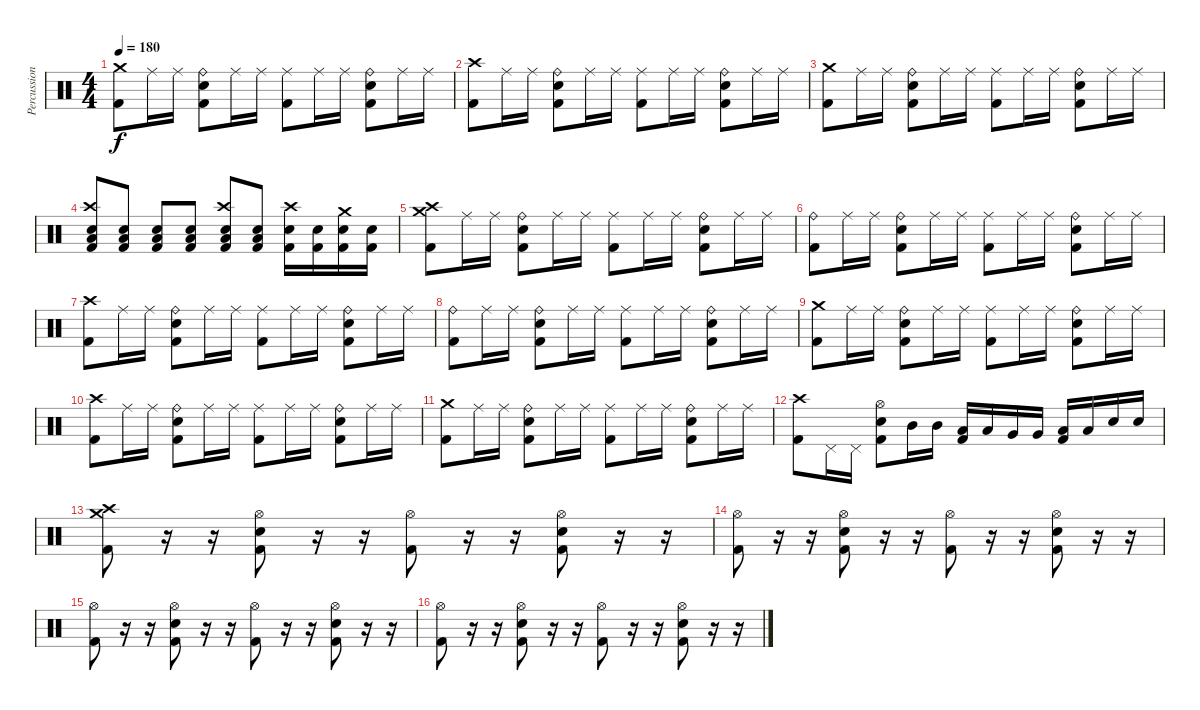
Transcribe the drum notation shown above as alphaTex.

\track ("Percussion" "Percussion") {instrument percussion}
\staff {score}
\articulation defaults
\ts (4 4)
\tempo 180
\clef neutral
\ks c
("Crash medium (hit)" "Kick (hit) 2").8{dy f} "Ride (middle)".16 "Ride (middle)".16 ("Ride (bell)" "Electric Snare (hit)" "Kick (hit) 2").8 "Ride (middle)".16 "Ride (middle)".16 ("Ride (middle)" "Kick (hit) 2").8 "Ride (middle)".16 "Ride (middle)".16 ("Ride (bell)" "Electric Snare (hit)" "Kick (hit) 2").8 "Ride (middle)".16 "Ride (middle)".16 |
("Crash high (hit)" "Kick (hit) 2").8 "Ride (middle)".16 "Ride (middle)".16 ("Ride (bell)" "Electric Snare (hit)" "Kick (hit) 2").8 "Ride (middle)".16 "Ride (middle)".16 ("Ride (middle)" "Kick (hit) 2").8 "Ride (middle)".16 "Ride (middle)".16 ("Ride (bell)" "Electric Snare (hit)" "Kick (hit) 2").8 "Ride (middle)".16 "Ride (middle)".16 |
("Crash medium (hit)" "Kick (hit) 2").8 "Ride (middle)".16 "Ride (middle)".16 ("Ride (bell)" "Electric Snare (hit)" "Kick (hit) 2").8 "Ride (middle)".16 "Ride (middle)".16 ("Ride (middle)" "Kick (hit) 2").8 "Ride (middle)".16 "Ride (middle)".16 ("Ride (bell)" "Electric Snare (hit)" "Kick (hit) 2").8 "Ride (middle)".16 "Ride (middle)".16 |
("Crash high (hit)" "Electric Snare (hit)" "Low Floor Tom (hit)" "Kick (hit) 2").8 ("Electric Snare (hit)" "Low Floor Tom (hit)" "Kick (hit) 2").8 ("Electric Snare (hit)" "Low Floor Tom (hit)" "Kick (hit) 2").8 ("Electric Snare (hit)" "Low Floor Tom (hit)" "Kick (hit) 2").8 ("Crash high (hit)" "Electric Snare (hit)" "Low Floor Tom (hit)" "Kick (hit) 2").8 ("Electric Snare (hit)" "Low Floor Tom (hit)" "Kick (hit) 2").8 ("Crash high (hit)" "Electric Snare (hit)" "Kick (hit) 2").16 ("Electric Snare (hit)" "Kick (hit) 2").16 ("Crash medium (hit)" "Electric Snare (hit)" "Kick (hit) 2").16 ("Electric Snare (hit)" "Kick (hit) 2").16 |
("Crash high (hit)" "Crash medium (hit)" "Kick (hit) 2").8 "Ride (middle)".16 "Ride (middle)".16 ("Ride (bell)" "Electric Snare (hit)" "Kick (hit) 2").8 "Ride (middle)".16 "Ride (middle)".16 ("Ride (middle)" "Kick (hit) 2").8 "Ride (middle)".16 "Ride (middle)".16 ("Ride (bell)" "Electric Snare (hit)" "Kick (hit) 2").8 "Ride (middle)".16 "Ride (middle)".16 |
("Ride (bell)" "Kick (hit) 2").8 "Ride (middle)".16 "Ride (middle)".16 ("Ride (bell)" "Electric Snare (hit)" "Kick (hit) 2").8 "Ride (middle)".16 "Ride (middle)".16 ("Ride (middle)" "Kick (hit) 2").8 "Ride (middle)".16 "Ride (middle)".16 ("Ride (bell)" "Electric Snare (hit)" "Kick (hit) 2").8 "Ride (middle)".16 "Ride (middle)".16 |
("Crash high (hit)" "Kick (hit) 2").8 "Ride (middle)".16 "Ride (middle)".16 ("Ride (bell)" "Electric Snare (hit)" "Kick (hit) 2").8 "Ride (middle)".16 "Ride (middle)".16 ("Ride (middle)" "Kick (hit) 2").8 "Ride (middle)".16 "Ride (middle)".16 ("Ride (bell)" "Electric Snare (hit)" "Kick (hit) 2").8 "Ride (middle)".16 "Ride (middle)".16 |
("Ride (bell)" "Kick (hit) 2").8 "Ride (middle)".16 "Ride (middle)".16 ("Ride (bell)" "Electric Snare (hit)" "Kick (hit) 2").8 "Ride (middle)".16 "Ride (middle)".16 ("Ride (middle)" "Kick (hit) 2").8 "Ride (middle)".16 "Ride (middle)".16 ("Ride (bell)" "Electric Snare (hit)" "Kick (hit) 2").8 "Ride (middle)".16 "Ride (middle)".16 |
("Crash medium (hit)" "Kick (hit) 2").8 "Ride (middle)".16 "Ride (middle)".16 ("Ride (bell)" "Electric Snare (hit)" "Kick (hit) 2").8 "Ride (middle)".16 "Ride (middle)".16 ("Ride (middle)" "Kick (hit) 2").8 "Ride (middle)".16 "Ride (middle)".16 ("Ride (bell)" "Electric Snare (hit)" "Kick (hit) 2").8 "Ride (middle)".16 "Ride (middle)".16 |
("Crash high (hit)" "Kick (hit) 2").8 "Ride (middle)".16 "Ride (middle)".16 ("Ride (bell)" "Electric Snare (hit)" "Kick (hit) 2").8 "Ride (middle)".16 "Ride (middle)".16 ("Ride (middle)" "Kick (hit) 2").8 "Ride (middle)".16 "Ride (middle)".16 ("Ride (bell)" "Electric Snare (hit)" "Kick (hit) 2").8 "Ride (middle)".16 "Ride (middle)".16 |
("Crash medium (hit)" "Kick (hit) 2").8 "Ride (middle)".16 "Ride (middle)".16 ("Ride (bell)" "Electric Snare (hit)" "Kick (hit) 2").8 "Ride (middle)".16 "Ride (middle)".16 ("Ride (middle)" "Kick (hit) 2").8 "Ride (middle)".16 "Ride (middle)".16 ("Ride (bell)" "Electric Snare (hit)" "Kick (hit) 2").8 "Ride (middle)".16 "Ride (middle)".16 |
("Crash high (hit)" "Kick (hit) 2").8 "Pedal Hi-Hat (hit)".16 "Pedal Hi-Hat (hit)".16 ("Hi-Hat (open)" "Electric Snare (hit)" "Kick (hit) 2").8 "Mid Tom (hit)".16 "Mid Tom (hit)".16 ("Low Tom (hit)" "Kick (hit) 2").16 "Low Tom (hit)".16 "Very Low Tom (hit)".16 "Very Low Tom (hit)".16 ("Low Floor Tom (hit)" "Kick (hit) 2").16 "Low Floor Tom (hit)".16 "Electric Snare (hit)".16 "Electric Snare (hit)".16 |
("Crash high (hit)" "Crash medium (hit)" "Kick (hit) 2").8 r.16 r.16 ("Hi-Hat (open)" "Electric Snare (hit)" "Kick (hit) 2").8 r.16 r.16 ("Hi-Hat (open)" "Kick (hit) 2").8 r.16 r.16 ("Hi-Hat (open)" "Electric Snare (hit)" "Kick (hit) 2").8 r.16 r.16 |
("Hi-Hat (open)" "Kick (hit) 2").8 r.16 r.16 ("Hi-Hat (open)" "Electric Snare (hit)" "Kick (hit) 2").8 r.16 r.16 ("Hi-Hat (open)" "Kick (hit) 2").8 r.16 r.16 ("Hi-Hat (open)" "Electric Snare (hit)" "Kick (hit) 2").8 r.16 r.16 |
("Hi-Hat (open)" "Kick (hit) 2").8 r.16 r.16 ("Hi-Hat (open)" "Electric Snare (hit)" "Kick (hit) 2").8 r.16 r.16 ("Hi-Hat (open)" "Kick (hit) 2").8 r.16 r.16 ("Hi-Hat (open)" "Electric Snare (hit)" "Kick (hit) 2").8 r.16 r.16 |
("Hi-Hat (open)" "Kick (hit) 2").8 r.16 r.16 ("Hi-Hat (open)" "Electric Snare (hit)" "Kick (hit) 2").8 r.16 r.16 ("Hi-Hat (open)" "Kick (hit) 2").8 r.16 r.16 ("Hi-Hat (open)" "Electric Snare (hit)" "Kick (hit) 2").8 r.16 r.16
